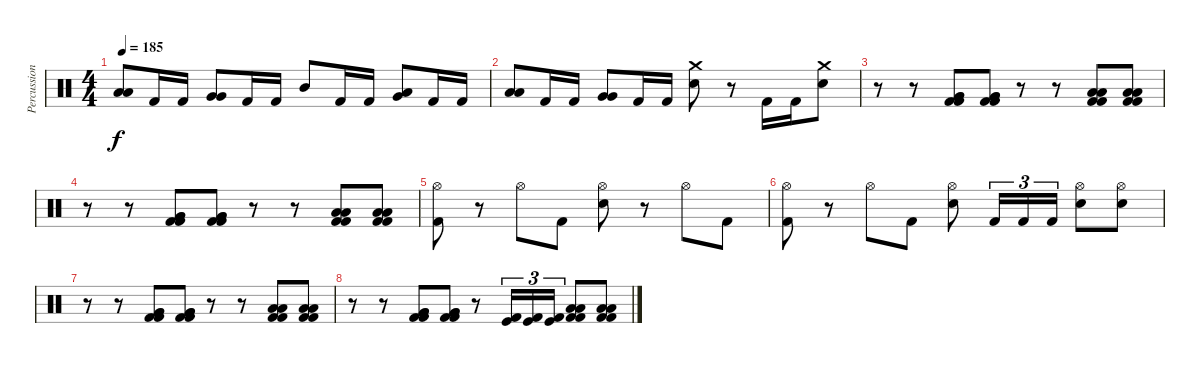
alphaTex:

\track ("Percussion" "Percussion") {instrument percussion}
\staff {score}
\articulation defaults
\ts (4 4)
\tempo 185
\clef neutral
\ks c
("Low Tom (hit)" "Low Tom (hit)").8{dy f} "Kick (hit) 2".16 "Kick (hit) 2".16 ("Very Low Tom (hit)" "Very Low Tom (hit)").8 "Kick (hit) 2".16 "Kick (hit) 2".16 "Mid Tom (hit)".8 "Kick (hit) 2".16 "Kick (hit) 2".16 ("Very Low Tom (hit)" "Low Tom (hit)").8 "Kick (hit) 2".16 "Kick (hit) 2".16 |
("Low Tom (hit)" "Low Tom (hit)").8 "Kick (hit) 2".16 "Kick (hit) 2".16 ("Very Low Tom (hit)" "Very Low Tom (hit)").8 "Kick (hit) 2".16 "Kick (hit) 2".16 ("Crash medium (hit)" "Electric Snare (hit)").8 r.8 "Kick (hit) 2".16 "Kick (hit) 2".16 ("Crash medium (hit)" "Electric Snare (hit)").8 |
r.8 r.8 ("Very Low Tom (hit)" "Very Low Tom (hit)" "Kick (hit) 2" "Kick (hit) 2").8 ("Very Low Tom (hit)" "Very Low Tom (hit)" "Kick (hit) 2" "Kick (hit) 2").8 r.8 r.8 ("Low Tom (hit)" "Low Tom (hit)" "Kick (hit) 2" "Kick (hit) 2").8 ("Low Tom (hit)" "Low Tom (hit)" "Kick (hit) 2" "Kick (hit) 2").8 |
r.8 r.8 ("Very Low Tom (hit)" "Very Low Tom (hit)" "Kick (hit) 2" "Kick (hit) 2").8 ("Very Low Tom (hit)" "Very Low Tom (hit)" "Kick (hit) 2" "Kick (hit) 2").8 r.8 r.8 ("Low Tom (hit)" "Low Tom (hit)" "Kick (hit) 2" "Kick (hit) 2").8 ("Low Tom (hit)" "Low Tom (hit)" "Kick (hit) 2" "Kick (hit) 2").8 |
("Hi-Hat (open)" "Kick (hit) 2").8 r.8 "Hi-Hat (open)".8 "Kick (hit) 2".8 ("Hi-Hat (open)" "Electric Snare (hit)").8 r.8 "Hi-Hat (open)".8 "Kick (hit) 2".8 |
("Hi-Hat (open)" "Kick (hit) 2").8 r.8 "Hi-Hat (open)".8 "Kick (hit) 2".8 ("Hi-Hat (open)" "Electric Snare (hit)").8 "Kick (hit) 2".16{tu (3 2)} "Kick (hit) 2".16{tu (3 2)} "Kick (hit) 2".16{tu (3 2)} ("Hi-Hat (open)" "Electric Snare (hit)").8 ("Hi-Hat (open)" "Electric Snare (hit)").8 |
r.8 r.8 ("Very Low Tom (hit)" "Very Low Tom (hit)" "Kick (hit) 2" "Kick (hit) 2").8 ("Very Low Tom (hit)" "Very Low Tom (hit)" "Kick (hit) 2" "Kick (hit) 2").8 r.8 r.8 ("Low Tom (hit)" "Low Tom (hit)" "Kick (hit) 2" "Kick (hit) 2").8 ("Low Tom (hit)" "Low Tom (hit)" "Kick (hit) 2" "Kick (hit) 2").8 |
r.8 r.8 ("Very Low Tom (hit)" "Very Low Tom (hit)" "Kick (hit) 2" "Kick (hit) 2").8 ("Very Low Tom (hit)" "Very Low Tom (hit)" "Kick (hit) 2" "Kick (hit) 2").8 r.8 ("Kick (hit)" "Kick (hit) 2").16{tu (3 2)} ("Kick (hit)" "Kick (hit) 2").16{tu (3 2)} ("Kick (hit)" "Kick (hit) 2").16{tu (3 2)} ("Low Tom (hit)" "Low Tom (hit)" "Kick (hit) 2" "Kick (hit) 2").8 ("Low Tom (hit)" "Low Tom (hit)" "Kick (hit) 2" "Kick (hit) 2").8
